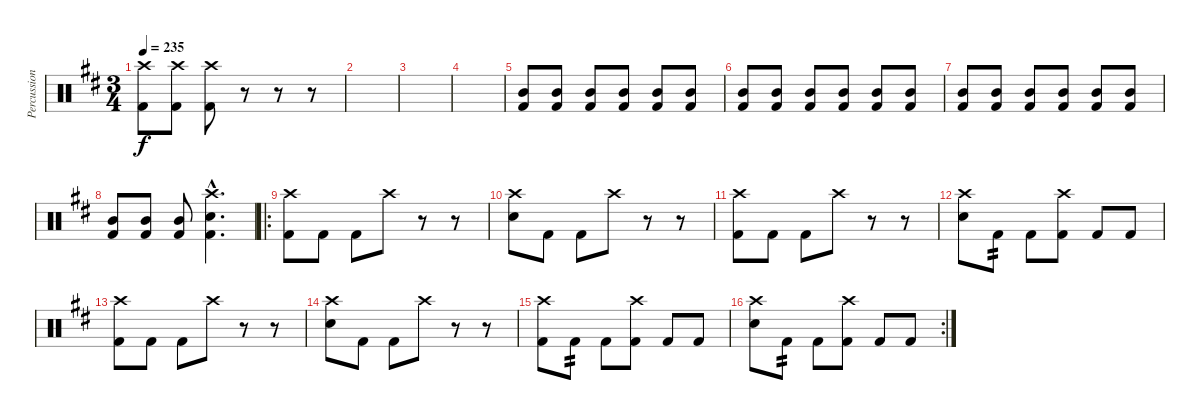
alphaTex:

\track ("Percussion" "Percussion") {instrument percussion}
\staff {score}
\articulation defaults
\ts (3 4)
\tempo 235
\clef neutral
\ks d
("Crash high (hit)" "Kick (hit) 2").8{dy f} ("Crash high (hit)" "Kick (hit) 2").8 ("Crash high (hit)" "Kick (hit) 2").8 r.8 r.8 r.8 |
|
|
|
("Mid Tom (hit)" "Kick (hit) 2").8 ("Mid Tom (hit)" "Kick (hit) 2").8 ("Mid Tom (hit)" "Kick (hit) 2").8 ("Mid Tom (hit)" "Kick (hit) 2").8 ("Mid Tom (hit)" "Kick (hit) 2").8 ("Mid Tom (hit)" "Kick (hit) 2").8 |
("Mid Tom (hit)" "Kick (hit) 2").8 ("Mid Tom (hit)" "Kick (hit) 2").8 ("Mid Tom (hit)" "Kick (hit) 2").8 ("Mid Tom (hit)" "Kick (hit) 2").8 ("Mid Tom (hit)" "Kick (hit) 2").8 ("Mid Tom (hit)" "Kick (hit) 2").8 |
("Mid Tom (hit)" "Kick (hit) 2").8 ("Mid Tom (hit)" "Kick (hit) 2").8 ("Mid Tom (hit)" "Kick (hit) 2").8 ("Mid Tom (hit)" "Kick (hit) 2").8 ("Mid Tom (hit)" "Kick (hit) 2").8 ("Mid Tom (hit)" "Kick (hit) 2").8 |
("Mid Tom (hit)" "Kick (hit) 2").8 ("Mid Tom (hit)" "Kick (hit) 2").8 ("Mid Tom (hit)" "Kick (hit) 2").8 ("Crash high (hit)"{hac} "Electric Snare (hit)"{hac} "Kick (hit) 2"{hac}).4{d} |
\ro
("Crash high (hit)" "Kick (hit) 2").8 "Kick (hit) 2".8 "Kick (hit) 2".8 "Crash high (hit)".8 r.8 r.8 |
("Crash high (hit)" "Electric Snare (hit)").8 "Kick (hit) 2".8 "Kick (hit) 2".8 "Crash high (hit)".8 r.8 r.8 |
("Crash high (hit)" "Kick (hit) 2").8 "Kick (hit) 2".8 "Kick (hit) 2".8 "Crash high (hit)".8 r.8 r.8 |
("Crash high (hit)" "Electric Snare (hit)").8 "Kick (hit) 2".8{tp 2} "Kick (hit) 2".8 ("Crash high (hit)" "Kick (hit) 2").8 "Kick (hit) 2".8 "Kick (hit) 2".8 |
("Crash high (hit)" "Kick (hit) 2").8 "Kick (hit) 2".8 "Kick (hit) 2".8 "Crash high (hit)".8 r.8 r.8 |
("Crash high (hit)" "Electric Snare (hit)").8 "Kick (hit) 2".8 "Kick (hit) 2".8 "Crash high (hit)".8 r.8 r.8 |
("Crash high (hit)" "Kick (hit) 2").8 "Kick (hit) 2".8{tp 2} "Kick (hit) 2".8 ("Crash high (hit)" "Kick (hit) 2").8 "Kick (hit) 2".8 "Kick (hit) 2".8 |
\rc 2
("Crash high (hit)" "Electric Snare (hit)").8 "Kick (hit) 2".8{tp 2} "Kick (hit) 2".8 ("Crash high (hit)" "Kick (hit) 2").8 "Kick (hit) 2".8 "Kick (hit) 2".8
